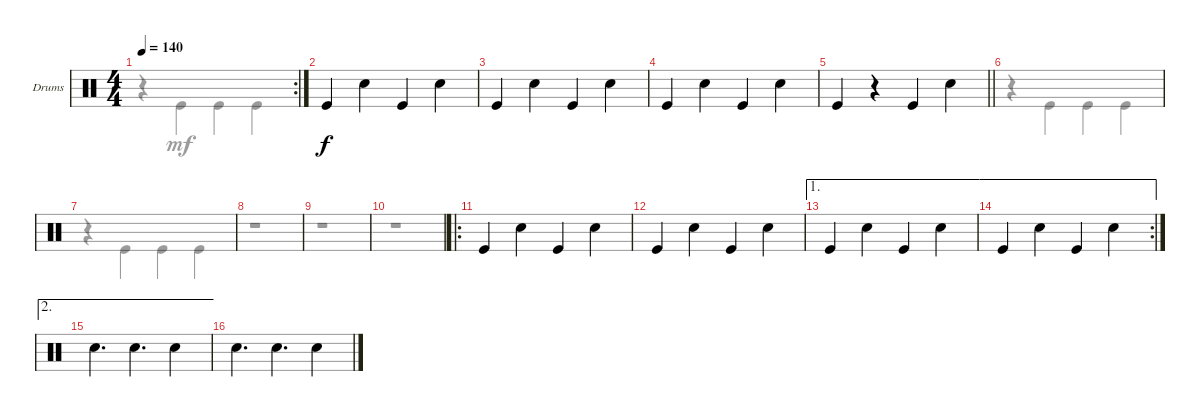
\defaultSystemsLayout 4
\bracketExtendMode groupsimilarinstruments
\firstSystemTrackNameOrientation horizontal
\otherSystemsTrackNameOrientation horizontal
\track ("Drumkit" "Drums") {instrument percussion}
\staff {score}
\articulation defaults
\voice
\rc 2
\ts (4 4)
\tempo 140
\clef neutral
\scale
0.525
\ks c
|
\scale
0.475 "Kick (hit)".4 "Snare (hit) 2".4 "Kick (hit)".4 "Snare (hit) 2".4 |
\scale
0.5 "Kick (hit)".4 "Snare (hit) 2".4 "Kick (hit)".4 "Snare (hit) 2".4 |
\scale
0.5 "Kick (hit)".4 "Snare (hit) 2".4 "Kick (hit)".4 "Snare (hit) 2".4 |
\scale
0.5
\barLineRight lightlight "Kick (hit)".4
r.4 "Kick (hit)".4 "Snare (hit) 2".4 |
\scale
0.5 |
\scale
0.5 |
\scale
0.5 |
\scale
0.5 |
\scale
0.5 |
\ro
\scale
0.547619 "Kick (hit)".4 "Snare (hit) 2".4 "Kick (hit)".4 "Snare (hit) 2".4 |
\scale
0.452381 "Kick (hit)".4 "Snare (hit) 2".4 "Kick (hit)".4 "Snare (hit) 2".4 |
\ae 1
\scale
0.475 "Kick (hit)".4 "Snare (hit) 2".4 "Kick (hit)".4 "Snare (hit) 2".4 |
\ae 1
\rc 2
\scale
0.525 "Kick (hit)".4 "Snare (hit) 2".4 "Kick (hit)".4 "Snare (hit) 2".4 |
\ae 2
\scale
0.5 "Snare (hit) 2".4{d} "Snare (hit) 2".4{d} "Snare (hit) 2".4 |
\scale
0.5 "Snare (hit) 2".4{d} "Snare (hit) 2".4{d} "Snare (hit) 2".4
\voice
\clef neutral
\ottava regular
\simile none
\scale
0.525
\ks c
r.4{dy mf} "Kick (hit)".4 "Kick (hit)".4 "Kick (hit)".4 |
\scale
0.475 |
\scale
0.5 |
\scale
0.5 |
\scale
0.5
\barLineRight lightlight
|
\scale
0.5 r.4 "Kick (hit)".4 "Kick (hit)".4 "Kick (hit)".4 |
\scale
0.5 r.4 "Kick (hit)".4 "Kick (hit)".4 "Kick (hit)".4 |
\scale
0.5 r.1 |
\scale
0.5 r.1 |
\scale
0.5 r.1 |
\scale
0.547619 |
\scale
0.452381 |
\scale
0.475 |
\scale
0.525 |
\scale
0.5 |
\scale
0.5
